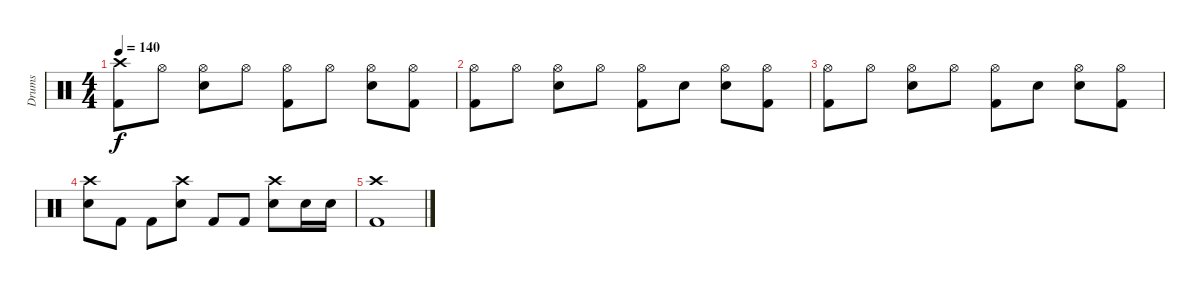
\track ("Drums" "Drums") {instrument percussion}
\staff {score}
\articulation defaults
\ts (4 4)
\tempo 140
\clef neutral
\ks c
("Crash high (hit)" "Kick (hit) 2").8{dy f} "Hi-Hat (open)".8 ("Hi-Hat (open)" "Electric Snare (hit)").8 "Hi-Hat (open)".8 ("Hi-Hat (open)" "Kick (hit) 2").8 "Hi-Hat (open)".8 ("Hi-Hat (open)" "Electric Snare (hit)").8 ("Hi-Hat (open)" "Kick (hit) 2").8 |
("Hi-Hat (open)" "Kick (hit) 2").8 "Hi-Hat (open)".8 ("Hi-Hat (open)" "Electric Snare (hit)").8 "Hi-Hat (open)".8 ("Hi-Hat (open)" "Kick (hit) 2").8 "Electric Snare (hit)".8 ("Hi-Hat (open)" "Electric Snare (hit)").8 ("Hi-Hat (open)" "Kick (hit) 2").8 |
("Hi-Hat (open)" "Kick (hit) 2").8 "Hi-Hat (open)".8 ("Hi-Hat (open)" "Electric Snare (hit)").8 "Hi-Hat (open)".8 ("Hi-Hat (open)" "Kick (hit) 2").8 "Electric Snare (hit)".8 ("Hi-Hat (open)" "Electric Snare (hit)").8 ("Hi-Hat (open)" "Kick (hit) 2").8 |
("Crash high (hit)" "Electric Snare (hit)").8 "Kick (hit) 2".8 "Kick (hit) 2".8 ("Crash high (hit)" "Electric Snare (hit)").8 "Kick (hit) 2".8 "Kick (hit) 2".8 ("Crash high (hit)" "Electric Snare (hit)").8 "Electric Snare (hit)".16 "Electric Snare (hit)".16 |
("Crash high (hit)" "Kick (hit) 2").1
